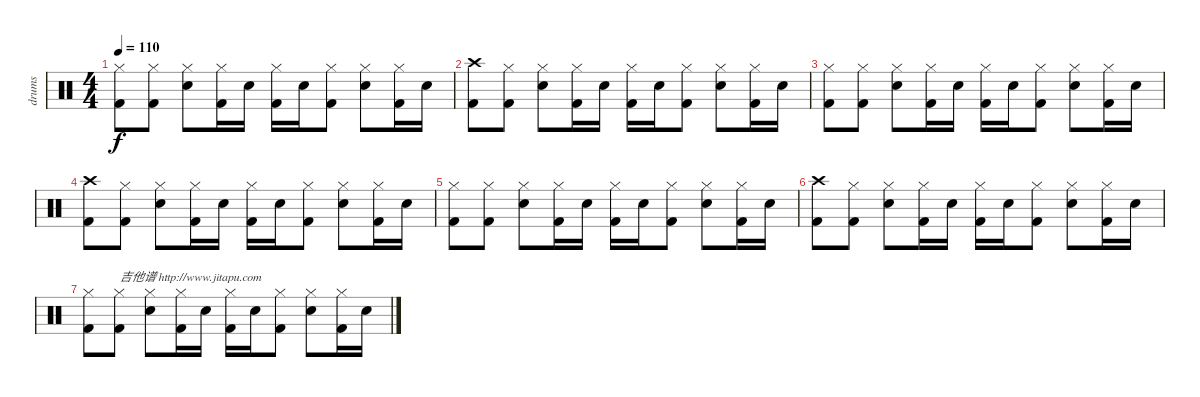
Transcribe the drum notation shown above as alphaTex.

\track ("drums" "drums") {instrument percussion}
\staff {score}
\articulation defaults
\ts (4 4)
\tempo 110
\clef neutral
\ks c
("Hi-Hat (closed)" "Kick (hit) 2").8{dy f} ("Hi-Hat (closed)" "Kick (hit) 2").8 ("Hi-Hat (closed)" "Snare (hit) 2").8 ("Hi-Hat (closed)" "Kick (hit) 2").16 "Snare (hit) 2".16 ("Hi-Hat (closed)" "Kick (hit) 2").16 "Snare (hit) 2".16 ("Hi-Hat (closed)" "Kick (hit) 2").8 ("Hi-Hat (closed)" "Snare (hit) 2").8 ("Hi-Hat (closed)" "Kick (hit) 2").16 "Snare (hit) 2".16 |
("Crash high (hit)" "Kick (hit) 2").8 ("Hi-Hat (closed)" "Kick (hit) 2").8 ("Hi-Hat (closed)" "Snare (hit) 2").8 ("Hi-Hat (closed)" "Kick (hit) 2").16 "Snare (hit) 2".16 ("Hi-Hat (closed)" "Kick (hit) 2").16 "Snare (hit) 2".16 ("Hi-Hat (closed)" "Kick (hit) 2").8 ("Hi-Hat (closed)" "Snare (hit) 2").8 ("Hi-Hat (closed)" "Kick (hit) 2").16 "Snare (hit) 2".16 |
("Hi-Hat (closed)" "Kick (hit) 2").8 ("Hi-Hat (closed)" "Kick (hit) 2").8 ("Hi-Hat (closed)" "Snare (hit) 2").8 ("Hi-Hat (closed)" "Kick (hit) 2").16 "Snare (hit) 2".16 ("Hi-Hat (closed)" "Kick (hit) 2").16 "Snare (hit) 2".16 ("Hi-Hat (closed)" "Kick (hit) 2").8 ("Hi-Hat (closed)" "Snare (hit) 2").8 ("Hi-Hat (closed)" "Kick (hit) 2").16 "Snare (hit) 2".16 |
("Crash high (hit)" "Kick (hit) 2").8 ("Hi-Hat (closed)" "Kick (hit) 2").8 ("Hi-Hat (closed)" "Snare (hit) 2").8 ("Hi-Hat (closed)" "Kick (hit) 2").16 "Snare (hit) 2".16 ("Hi-Hat (closed)" "Kick (hit) 2").16 "Snare (hit) 2".16 ("Hi-Hat (closed)" "Kick (hit) 2").8 ("Hi-Hat (closed)" "Snare (hit) 2").8 ("Hi-Hat (closed)" "Kick (hit) 2").16 "Snare (hit) 2".16 |
("Hi-Hat (closed)" "Kick (hit) 2").8 ("Hi-Hat (closed)" "Kick (hit) 2").8 ("Hi-Hat (closed)" "Snare (hit) 2").8 ("Hi-Hat (closed)" "Kick (hit) 2").16 "Snare (hit) 2".16 ("Hi-Hat (closed)" "Kick (hit) 2").16 "Snare (hit) 2".16 ("Hi-Hat (closed)" "Kick (hit) 2").8 ("Hi-Hat (closed)" "Snare (hit) 2").8 ("Hi-Hat (closed)" "Kick (hit) 2").16 "Snare (hit) 2".16 |
("Crash high (hit)" "Kick (hit) 2").8 ("Hi-Hat (closed)" "Kick (hit) 2").8 ("Hi-Hat (closed)" "Snare (hit) 2").8 ("Hi-Hat (closed)" "Kick (hit) 2").16 "Snare (hit) 2".16 ("Hi-Hat (closed)" "Kick (hit) 2").16 "Snare (hit) 2".16 ("Hi-Hat (closed)" "Kick (hit) 2").8 ("Hi-Hat (closed)" "Snare (hit) 2").8 ("Hi-Hat (closed)" "Kick (hit) 2").16 "Snare (hit) 2".16 |
("Hi-Hat (closed)" "Kick (hit) 2").8 ("Hi-Hat (closed)" "Kick (hit) 2").8{txt "吉他谱 http://www.jitapu.com"} ("Hi-Hat (closed)" "Snare (hit) 2").8 ("Hi-Hat (closed)" "Kick (hit) 2").16 "Snare (hit) 2".16 ("Hi-Hat (closed)" "Kick (hit) 2").16 "Snare (hit) 2".16 ("Hi-Hat (closed)" "Kick (hit) 2").8 ("Hi-Hat (closed)" "Snare (hit) 2").8 ("Hi-Hat (closed)" "Kick (hit) 2").16 "Snare (hit) 2".16
